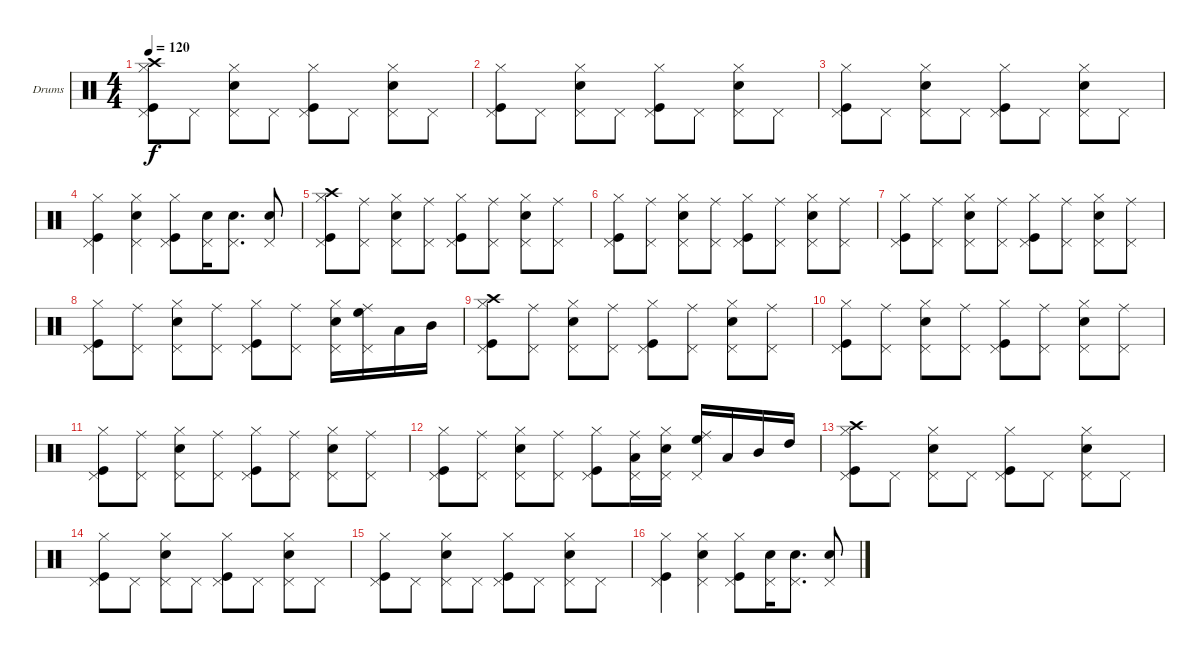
\defaultSystemsLayout 4
\bracketExtendMode groupsimilarinstruments
\firstSystemTrackNameOrientation horizontal
\otherSystemsTrackNameOrientation horizontal
\track ("Drumkit" "Drums") {instrument percussion}
\staff {score}
\articulation defaults
\ts (4 4)
\tempo 120
\clef neutral
\ks c
("Hi-Hat (closed)" "Crash high (hit)" "Kick (hit)" "Pedal Hi-Hat (hit)").8{dy f} "Pedal Hi-Hat (hit)".8 ("Snare (hit) 2" "Hi-Hat (closed)" "Pedal Hi-Hat (hit)").8 "Pedal Hi-Hat (hit)".8 ("Kick (hit)" "Hi-Hat (closed)" "Pedal Hi-Hat (hit)").8 "Pedal Hi-Hat (hit)".8 ("Snare (hit) 2" "Hi-Hat (closed)" "Pedal Hi-Hat (hit)").8 "Pedal Hi-Hat (hit)".8 |
("Hi-Hat (closed)" "Kick (hit)" "Pedal Hi-Hat (hit)").8 "Pedal Hi-Hat (hit)".8 ("Snare (hit) 2" "Hi-Hat (closed)" "Pedal Hi-Hat (hit)").8 "Pedal Hi-Hat (hit)".8 ("Kick (hit)" "Hi-Hat (closed)" "Pedal Hi-Hat (hit)").8 "Pedal Hi-Hat (hit)".8 ("Snare (hit) 2" "Hi-Hat (closed)" "Pedal Hi-Hat (hit)").8 "Pedal Hi-Hat (hit)".8 |
("Hi-Hat (closed)" "Kick (hit)" "Pedal Hi-Hat (hit)").8 "Pedal Hi-Hat (hit)".8 ("Snare (hit) 2" "Hi-Hat (closed)" "Pedal Hi-Hat (hit)").8 "Pedal Hi-Hat (hit)".8 ("Kick (hit)" "Hi-Hat (closed)" "Pedal Hi-Hat (hit)").8 "Pedal Hi-Hat (hit)".8 ("Snare (hit) 2" "Hi-Hat (closed)" "Pedal Hi-Hat (hit)").8 "Pedal Hi-Hat (hit)".8 |
("Hi-Hat (closed)" "Kick (hit)" "Pedal Hi-Hat (hit)").4 ("Hi-Hat (closed)" "Snare (hit) 2" "Pedal Hi-Hat (hit)").4 ("Hi-Hat (closed)" "Kick (hit)" "Pedal Hi-Hat (hit)").8 ("Pedal Hi-Hat (hit)" "Snare (hit) 2").16 ("Pedal Hi-Hat (hit)" "Snare (hit) 2").8{d} ("Pedal Hi-Hat (hit)" "Snare (hit) 2").8 |
("Hi-Hat (closed)" "Crash high (hit)" "Kick (hit)" "Pedal Hi-Hat (hit)").8 ("Pedal Hi-Hat (hit)" "Ride (middle)").8 ("Snare (hit) 2" "Hi-Hat (closed)" "Pedal Hi-Hat (hit)").8 ("Pedal Hi-Hat (hit)" "Ride (middle)").8 ("Kick (hit)" "Hi-Hat (closed)" "Pedal Hi-Hat (hit)").8 ("Pedal Hi-Hat (hit)" "Ride (middle)").8 ("Snare (hit) 2" "Hi-Hat (closed)" "Pedal Hi-Hat (hit)").8 ("Pedal Hi-Hat (hit)" "Ride (middle)").8 |
("Hi-Hat (closed)" "Kick (hit)" "Pedal Hi-Hat (hit)").8 ("Pedal Hi-Hat (hit)" "Ride (middle)").8 ("Snare (hit) 2" "Hi-Hat (closed)" "Pedal Hi-Hat (hit)").8 ("Pedal Hi-Hat (hit)" "Ride (middle)").8 ("Kick (hit)" "Hi-Hat (closed)" "Pedal Hi-Hat (hit)").8 ("Pedal Hi-Hat (hit)" "Ride (middle)").8 ("Snare (hit) 2" "Hi-Hat (closed)" "Pedal Hi-Hat (hit)").8 ("Pedal Hi-Hat (hit)" "Ride (middle)").8 |
("Hi-Hat (closed)" "Kick (hit)" "Pedal Hi-Hat (hit)").8 ("Pedal Hi-Hat (hit)" "Ride (middle)").8 ("Snare (hit) 2" "Hi-Hat (closed)" "Pedal Hi-Hat (hit)").8 ("Pedal Hi-Hat (hit)" "Ride (middle)").8 ("Kick (hit)" "Hi-Hat (closed)" "Pedal Hi-Hat (hit)").8 ("Pedal Hi-Hat (hit)" "Ride (middle)").8 ("Snare (hit) 2" "Hi-Hat (closed)" "Pedal Hi-Hat (hit)").8 ("Pedal Hi-Hat (hit)" "Ride (middle)").8 |
("Hi-Hat (closed)" "Kick (hit)" "Pedal Hi-Hat (hit)").8 ("Pedal Hi-Hat (hit)" "Ride (middle)").8 ("Snare (hit) 2" "Hi-Hat (closed)" "Pedal Hi-Hat (hit)").8 ("Pedal Hi-Hat (hit)" "Ride (middle)").8 ("Kick (hit)" "Hi-Hat (closed)" "Pedal Hi-Hat (hit)").8 ("Pedal Hi-Hat (hit)" "Ride (middle)").8 ("Snare (hit) 2" "Hi-Hat (closed)" "Pedal Hi-Hat (hit)").16 ("Pedal Hi-Hat (hit)" "Ride (middle)" "High Floor Tom (hit)").16 "Low Tom (hit)".16 "Mid Tom (hit)".16 |
("Hi-Hat (closed)" "Crash high (hit)" "Kick (hit)" "Pedal Hi-Hat (hit)").8 ("Pedal Hi-Hat (hit)" "Ride (middle)").8 ("Snare (hit) 2" "Hi-Hat (closed)" "Pedal Hi-Hat (hit)").8 ("Pedal Hi-Hat (hit)" "Ride (middle)").8 ("Kick (hit)" "Hi-Hat (closed)" "Pedal Hi-Hat (hit)").8 ("Pedal Hi-Hat (hit)" "Ride (middle)").8 ("Snare (hit) 2" "Hi-Hat (closed)" "Pedal Hi-Hat (hit)").8 ("Pedal Hi-Hat (hit)" "Ride (middle)").8 |
("Hi-Hat (closed)" "Kick (hit)" "Pedal Hi-Hat (hit)").8 ("Pedal Hi-Hat (hit)" "Ride (middle)").8 ("Snare (hit) 2" "Hi-Hat (closed)" "Pedal Hi-Hat (hit)").8 ("Pedal Hi-Hat (hit)" "Ride (middle)").8 ("Kick (hit)" "Hi-Hat (closed)" "Pedal Hi-Hat (hit)").8 ("Pedal Hi-Hat (hit)" "Ride (middle)").8 ("Snare (hit) 2" "Hi-Hat (closed)" "Pedal Hi-Hat (hit)").8 ("Pedal Hi-Hat (hit)" "Ride (middle)").8 |
("Hi-Hat (closed)" "Kick (hit)" "Pedal Hi-Hat (hit)").8 ("Pedal Hi-Hat (hit)" "Ride (middle)").8 ("Snare (hit) 2" "Hi-Hat (closed)" "Pedal Hi-Hat (hit)").8 ("Pedal Hi-Hat (hit)" "Ride (middle)").8 ("Kick (hit)" "Hi-Hat (closed)" "Pedal Hi-Hat (hit)").8 ("Pedal Hi-Hat (hit)" "Ride (middle)").8 ("Snare (hit) 2" "Hi-Hat (closed)" "Pedal Hi-Hat (hit)").8 ("Pedal Hi-Hat (hit)" "Ride (middle)").8 |
("Hi-Hat (closed)" "Kick (hit)" "Pedal Hi-Hat (hit)").8 ("Pedal Hi-Hat (hit)" "Ride (middle)").8 ("Snare (hit) 2" "Hi-Hat (closed)" "Pedal Hi-Hat (hit)").8 ("Pedal Hi-Hat (hit)" "Ride (middle)").8 ("Kick (hit)" "Hi-Hat (closed)" "Pedal Hi-Hat (hit)").8 ("Pedal Hi-Hat (hit)" "Ride (middle)" "Low Tom (hit)").16 ("Snare (hit) 2" "Hi-Hat (closed)" "Pedal Hi-Hat (hit)").16 ("Pedal Hi-Hat (hit)" "Ride (middle)" "High Floor Tom (hit)").16 "Low Tom (hit)".16 "Mid Tom (hit)".16 "High Tom (hit)".16 |
("Hi-Hat (closed)" "Crash high (hit)" "Kick (hit)" "Pedal Hi-Hat (hit)").8 "Pedal Hi-Hat (hit)".8 ("Snare (hit) 2" "Hi-Hat (closed)" "Pedal Hi-Hat (hit)").8 "Pedal Hi-Hat (hit)".8 ("Kick (hit)" "Hi-Hat (closed)" "Pedal Hi-Hat (hit)").8 "Pedal Hi-Hat (hit)".8 ("Snare (hit) 2" "Hi-Hat (closed)" "Pedal Hi-Hat (hit)").8 "Pedal Hi-Hat (hit)".8 |
("Hi-Hat (closed)" "Kick (hit)" "Pedal Hi-Hat (hit)").8 "Pedal Hi-Hat (hit)".8 ("Snare (hit) 2" "Hi-Hat (closed)" "Pedal Hi-Hat (hit)").8 "Pedal Hi-Hat (hit)".8 ("Kick (hit)" "Hi-Hat (closed)" "Pedal Hi-Hat (hit)").8 "Pedal Hi-Hat (hit)".8 ("Snare (hit) 2" "Hi-Hat (closed)" "Pedal Hi-Hat (hit)").8 "Pedal Hi-Hat (hit)".8 |
("Hi-Hat (closed)" "Kick (hit)" "Pedal Hi-Hat (hit)").8 "Pedal Hi-Hat (hit)".8 ("Snare (hit) 2" "Hi-Hat (closed)" "Pedal Hi-Hat (hit)").8 "Pedal Hi-Hat (hit)".8 ("Kick (hit)" "Hi-Hat (closed)" "Pedal Hi-Hat (hit)").8 "Pedal Hi-Hat (hit)".8 ("Snare (hit) 2" "Hi-Hat (closed)" "Pedal Hi-Hat (hit)").8 "Pedal Hi-Hat (hit)".8 |
("Hi-Hat (closed)" "Kick (hit)" "Pedal Hi-Hat (hit)").4 ("Hi-Hat (closed)" "Snare (hit) 2" "Pedal Hi-Hat (hit)").4 ("Hi-Hat (closed)" "Kick (hit)" "Pedal Hi-Hat (hit)").8 ("Pedal Hi-Hat (hit)" "Snare (hit) 2").16 ("Pedal Hi-Hat (hit)" "Snare (hit) 2").8{d} ("Pedal Hi-Hat (hit)" "Snare (hit) 2").8
